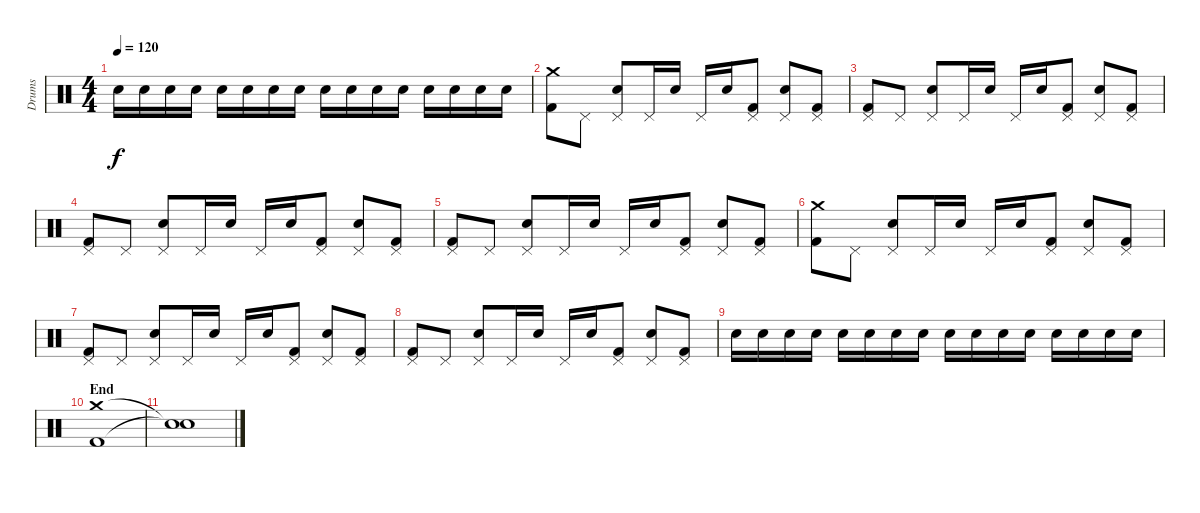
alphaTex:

\track ("Drums" "Drums") {instrument percussion}
\staff {score}
\articulation defaults
\ts (4 4)
\tempo 120
\clef neutral
\ks c "Electric Snare (hit)".16{dy f} "Electric Snare (hit)".16 "Electric Snare (hit)".16 "Electric Snare (hit)".16 "Electric Snare (hit)".16 "Electric Snare (hit)".16 "Electric Snare (hit)".16 "Electric Snare (hit)".16 "Electric Snare (hit)".16 "Electric Snare (hit)".16 "Electric Snare (hit)".16 "Electric Snare (hit)".16 "Electric Snare (hit)".16 "Electric Snare (hit)".16 "Electric Snare (hit)".16 "Electric Snare (hit)".16
|
("Crash medium (hit)" "Kick (hit) 2").8 "Pedal Hi-Hat (hit)".8 ("Pedal Hi-Hat (hit)" "Electric Snare (hit)").8 "Pedal Hi-Hat (hit)".16 "Electric Snare (hit)".16 "Pedal Hi-Hat (hit)".16 "Electric Snare (hit)".16 ("Pedal Hi-Hat (hit)" "Kick (hit) 2").8 ("Pedal Hi-Hat (hit)" "Electric Snare (hit)").8 ("Pedal Hi-Hat (hit)" "Kick (hit) 2").8 |
("Pedal Hi-Hat (hit)" "Kick (hit) 2").8 "Pedal Hi-Hat (hit)".8 ("Pedal Hi-Hat (hit)" "Electric Snare (hit)").8 "Pedal Hi-Hat (hit)".16 "Electric Snare (hit)".16 "Pedal Hi-Hat (hit)".16 "Electric Snare (hit)".16 ("Pedal Hi-Hat (hit)" "Kick (hit) 2").8 ("Pedal Hi-Hat (hit)" "Electric Snare (hit)").8 ("Pedal Hi-Hat (hit)" "Kick (hit) 2").8 |
("Pedal Hi-Hat (hit)" "Kick (hit) 2").8 "Pedal Hi-Hat (hit)".8 ("Pedal Hi-Hat (hit)" "Electric Snare (hit)").8 "Pedal Hi-Hat (hit)".16 "Electric Snare (hit)".16 "Pedal Hi-Hat (hit)".16 "Electric Snare (hit)".16 ("Pedal Hi-Hat (hit)" "Kick (hit) 2").8 ("Pedal Hi-Hat (hit)" "Electric Snare (hit)").8 ("Pedal Hi-Hat (hit)" "Kick (hit) 2").8 |
("Pedal Hi-Hat (hit)" "Kick (hit) 2").8 "Pedal Hi-Hat (hit)".8 ("Pedal Hi-Hat (hit)" "Electric Snare (hit)").8 "Pedal Hi-Hat (hit)".16 "Electric Snare (hit)".16 "Pedal Hi-Hat (hit)".16 "Electric Snare (hit)".16 ("Pedal Hi-Hat (hit)" "Kick (hit) 2").8 ("Pedal Hi-Hat (hit)" "Electric Snare (hit)").8 ("Pedal Hi-Hat (hit)" "Kick (hit) 2").8 |
("Crash medium (hit)" "Kick (hit) 2").8 "Pedal Hi-Hat (hit)".8 ("Pedal Hi-Hat (hit)" "Electric Snare (hit)").8 "Pedal Hi-Hat (hit)".16 "Electric Snare (hit)".16 "Pedal Hi-Hat (hit)".16 "Electric Snare (hit)".16 ("Pedal Hi-Hat (hit)" "Kick (hit) 2").8 ("Pedal Hi-Hat (hit)" "Electric Snare (hit)").8 ("Pedal Hi-Hat (hit)" "Kick (hit) 2").8 |
("Pedal Hi-Hat (hit)" "Kick (hit) 2").8 "Pedal Hi-Hat (hit)".8 ("Pedal Hi-Hat (hit)" "Electric Snare (hit)").8 "Pedal Hi-Hat (hit)".16 "Electric Snare (hit)".16 "Pedal Hi-Hat (hit)".16 "Electric Snare (hit)".16 ("Pedal Hi-Hat (hit)" "Kick (hit) 2").8 ("Pedal Hi-Hat (hit)" "Electric Snare (hit)").8 ("Pedal Hi-Hat (hit)" "Kick (hit) 2").8 |
("Pedal Hi-Hat (hit)" "Kick (hit) 2").8 "Pedal Hi-Hat (hit)".8 ("Pedal Hi-Hat (hit)" "Electric Snare (hit)").8 "Pedal Hi-Hat (hit)".16 "Electric Snare (hit)".16 "Pedal Hi-Hat (hit)".16 "Electric Snare (hit)".16 ("Pedal Hi-Hat (hit)" "Kick (hit) 2").8 ("Pedal Hi-Hat (hit)" "Electric Snare (hit)").8 ("Pedal Hi-Hat (hit)" "Kick (hit) 2").8 |
"Electric Snare (hit)".16 "Electric Snare (hit)".16 "Electric Snare (hit)".16 "Electric Snare (hit)".16 "Electric Snare (hit)".16 "Electric Snare (hit)".16 "Electric Snare (hit)".16 "Electric Snare (hit)".16 "Electric Snare (hit)".16 "Electric Snare (hit)".16 "Electric Snare (hit)".16 "Electric Snare (hit)".16 "Electric Snare (hit)".16 "Electric Snare (hit)".16 "Electric Snare (hit)".16 "Electric Snare (hit)".16 |
\section ("" "End")
("Crash medium (hit)" "Kick (hit) 2").1 |
("Snare (hit)"{t} "Snare (hit)"{t}).1
